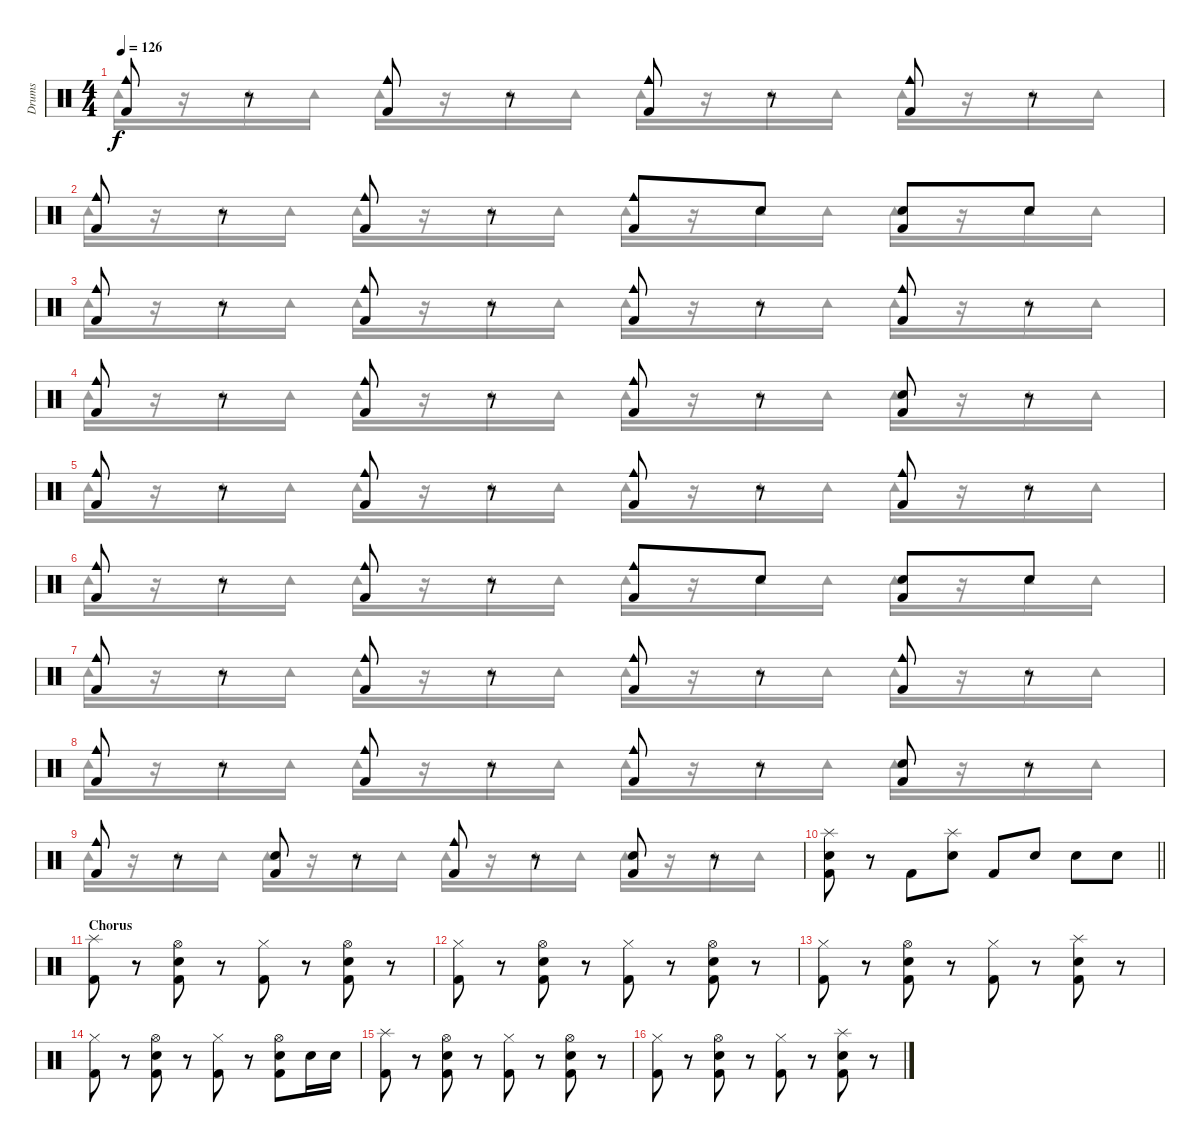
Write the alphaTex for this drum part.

\track ("Drums" "Drums") {instrument percussion}
\staff {score}
\articulation defaults
\voice
\ts (4 4)
\tempo 126
\clef neutral
\ks c
("Cowbell medium (hit)" "Kick (hit) 2").8{dy f} r.8 ("Cowbell medium (hit)" "Kick (hit) 2").8 r.8 ("Cowbell medium (hit)" "Kick (hit) 2").8 r.8 ("Cowbell medium (hit)" "Kick (hit) 2").8 r.8 |
("Cowbell medium (hit)" "Kick (hit) 2").8 r.8 ("Cowbell medium (hit)" "Kick (hit) 2").8 r.8 ("Cowbell medium (hit)" "Kick (hit) 2").8 "Electric Snare (hit)".8 ("Electric Snare (hit)" "Kick (hit) 2").8 "Electric Snare (hit)".8 |
("Cowbell medium (hit)" "Kick (hit) 2").8 r.8 ("Cowbell medium (hit)" "Kick (hit) 2").8 r.8 ("Cowbell medium (hit)" "Kick (hit) 2").8 r.8 ("Cowbell medium (hit)" "Kick (hit) 2").8 r.8 |
("Cowbell medium (hit)" "Kick (hit) 2").8 r.8 ("Cowbell medium (hit)" "Kick (hit) 2").8 r.8 ("Cowbell medium (hit)" "Kick (hit) 2").8 r.8 ("Electric Snare (hit)" "Kick (hit) 2").8 r.8 |
("Cowbell medium (hit)" "Kick (hit) 2").8 r.8 ("Cowbell medium (hit)" "Kick (hit) 2").8 r.8 ("Cowbell medium (hit)" "Kick (hit) 2").8 r.8 ("Cowbell medium (hit)" "Kick (hit) 2").8 r.8 |
("Cowbell medium (hit)" "Kick (hit) 2").8 r.8 ("Cowbell medium (hit)" "Kick (hit) 2").8 r.8 ("Cowbell medium (hit)" "Kick (hit) 2").8 "Electric Snare (hit)".8 ("Electric Snare (hit)" "Kick (hit) 2").8 "Electric Snare (hit)".8 |
("Cowbell medium (hit)" "Kick (hit) 2").8 r.8 ("Cowbell medium (hit)" "Kick (hit) 2").8 r.8 ("Cowbell medium (hit)" "Kick (hit) 2").8 r.8 ("Cowbell medium (hit)" "Kick (hit) 2").8 r.8 |
("Cowbell medium (hit)" "Kick (hit) 2").8 r.8 ("Cowbell medium (hit)" "Kick (hit) 2").8 r.8 ("Cowbell medium (hit)" "Kick (hit) 2").8 r.8 ("Electric Snare (hit)" "Kick (hit) 2").8 r.8 |
("Cowbell medium (hit)" "Kick (hit) 2").8 r.8 ("Electric Snare (hit)" "Kick (hit) 2").8 r.8 ("Cowbell medium (hit)" "Kick (hit) 2").8 r.8 ("Electric Snare (hit)" "Kick (hit) 2").8 r.8 |
\barLineRight lightlight
("Splash (hit)" "Electric Snare (hit)" "Kick (hit) 2").8 r.8 "Kick (hit) 2".8 ("Splash (hit)" "Electric Snare (hit)").8 "Kick (hit) 2".8 "Electric Snare (hit)".8 "Electric Snare (hit)".8 "Electric Snare (hit)".8 |
\section ("" "Chorus")
("Splash (hit)" "Kick (hit) 2").8 r.8 ("Hi-Hat (open)" "Electric Snare (hit)" "Kick (hit) 2").8 r.8 ("Hi-Hat (closed)" "Kick (hit) 2").8 r.8 ("Hi-Hat (open)" "Electric Snare (hit)" "Kick (hit) 2").8 r.8 |
("Hi-Hat (closed)" "Kick (hit) 2").8 r.8 ("Hi-Hat (open)" "Electric Snare (hit)" "Kick (hit) 2").8 r.8 ("Hi-Hat (closed)" "Kick (hit) 2").8 r.8 ("Hi-Hat (open)" "Electric Snare (hit)" "Kick (hit) 2").8 r.8 |
("Hi-Hat (closed)" "Kick (hit) 2").8 r.8 ("Hi-Hat (open)" "Electric Snare (hit)" "Kick (hit) 2").8 r.8 ("Hi-Hat (closed)" "Kick (hit) 2").8 r.8 ("Splash (hit)" "Electric Snare (hit)" "Kick (hit) 2").8 r.8 |
("Hi-Hat (closed)" "Kick (hit) 2").8 r.8 ("Hi-Hat (open)" "Electric Snare (hit)" "Kick (hit) 2").8 r.8 ("Hi-Hat (closed)" "Kick (hit) 2").8 r.8 ("Hi-Hat (open)" "Electric Snare (hit)" "Kick (hit) 2").8 "Electric Snare (hit)".16 "Electric Snare (hit)".16 |
("Splash (hit)" "Kick (hit) 2").8 r.8 ("Hi-Hat (open)" "Electric Snare (hit)" "Kick (hit) 2").8 r.8 ("Hi-Hat (closed)" "Kick (hit) 2").8 r.8 ("Hi-Hat (open)" "Electric Snare (hit)" "Kick (hit) 2").8 r.8 |
("Hi-Hat (closed)" "Kick (hit) 2").8 r.8 ("Hi-Hat (open)" "Electric Snare (hit)" "Kick (hit) 2").8 r.8 ("Hi-Hat (closed)" "Kick (hit) 2").8 r.8 ("Splash (hit)" "Electric Snare (hit)" "Kick (hit) 2").8 r.8
\voice
\clef neutral
\ottava regular
\simile none
\ks c "Tambourine (hit)".16{dy f}
r.16 "Tambourine (hit)".16 "Tambourine (hit)".16 "Tambourine (hit)".16 r.16 "Tambourine (hit)".16 "Tambourine (hit)".16 "Tambourine (hit)".16 r.16 "Tambourine (hit)".16 "Tambourine (hit)".16 "Tambourine (hit)".16 r.16 "Tambourine (hit)".16 "Tambourine (hit)".16 |
"Tambourine (hit)".16 r.16 "Tambourine (hit)".16 "Tambourine (hit)".16 "Tambourine (hit)".16 r.16 "Tambourine (hit)".16 "Tambourine (hit)".16 "Tambourine (hit)".16 r.16 "Tambourine (hit)".16 "Tambourine (hit)".16 "Tambourine (hit)".16 r.16 "Tambourine (hit)".16 "Tambourine (hit)".16 |
"Tambourine (hit)".16 r.16 "Tambourine (hit)".16 "Tambourine (hit)".16 "Tambourine (hit)".16 r.16 "Tambourine (hit)".16 "Tambourine (hit)".16 "Tambourine (hit)".16 r.16 "Tambourine (hit)".16 "Tambourine (hit)".16 "Tambourine (hit)".16 r.16 "Tambourine (hit)".16 "Tambourine (hit)".16 |
"Tambourine (hit)".16 r.16 "Tambourine (hit)".16 "Tambourine (hit)".16 "Tambourine (hit)".16 r.16 "Tambourine (hit)".16 "Tambourine (hit)".16 "Tambourine (hit)".16 r.16 "Tambourine (hit)".16 "Tambourine (hit)".16 "Tambourine (hit)".16 r.16 "Tambourine (hit)".16 "Tambourine (hit)".16 |
"Tambourine (hit)".16 r.16 "Tambourine (hit)".16 "Tambourine (hit)".16 "Tambourine (hit)".16 r.16 "Tambourine (hit)".16 "Tambourine (hit)".16 "Tambourine (hit)".16 r.16 "Tambourine (hit)".16 "Tambourine (hit)".16 "Tambourine (hit)".16 r.16 "Tambourine (hit)".16 "Tambourine (hit)".16 |
"Tambourine (hit)".16 r.16 "Tambourine (hit)".16 "Tambourine (hit)".16 "Tambourine (hit)".16 r.16 "Tambourine (hit)".16 "Tambourine (hit)".16 "Tambourine (hit)".16 r.16 "Tambourine (hit)".16 "Tambourine (hit)".16 "Tambourine (hit)".16 r.16 "Tambourine (hit)".16 "Tambourine (hit)".16 |
"Tambourine (hit)".16 r.16 "Tambourine (hit)".16 "Tambourine (hit)".16 "Tambourine (hit)".16 r.16 "Tambourine (hit)".16 "Tambourine (hit)".16 "Tambourine (hit)".16 r.16 "Tambourine (hit)".16 "Tambourine (hit)".16 "Tambourine (hit)".16 r.16 "Tambourine (hit)".16 "Tambourine (hit)".16 |
"Tambourine (hit)".16 r.16 "Tambourine (hit)".16 "Tambourine (hit)".16 "Tambourine (hit)".16 r.16 "Tambourine (hit)".16 "Tambourine (hit)".16 "Tambourine (hit)".16 r.16 "Tambourine (hit)".16 "Tambourine (hit)".16 "Tambourine (hit)".16 r.16 "Tambourine (hit)".16 "Tambourine (hit)".16 |
"Tambourine (hit)".16 r.16 "Tambourine (hit)".16 "Tambourine (hit)".16 "Tambourine (hit)".16 r.16 "Tambourine (hit)".16 "Tambourine (hit)".16 "Tambourine (hit)".16 r.16 "Tambourine (hit)".16 "Tambourine (hit)".16 "Tambourine (hit)".16 r.16 "Tambourine (hit)".16 "Tambourine (hit)".16 |
\barLineRight lightlight
|
|
|
|
|
|
